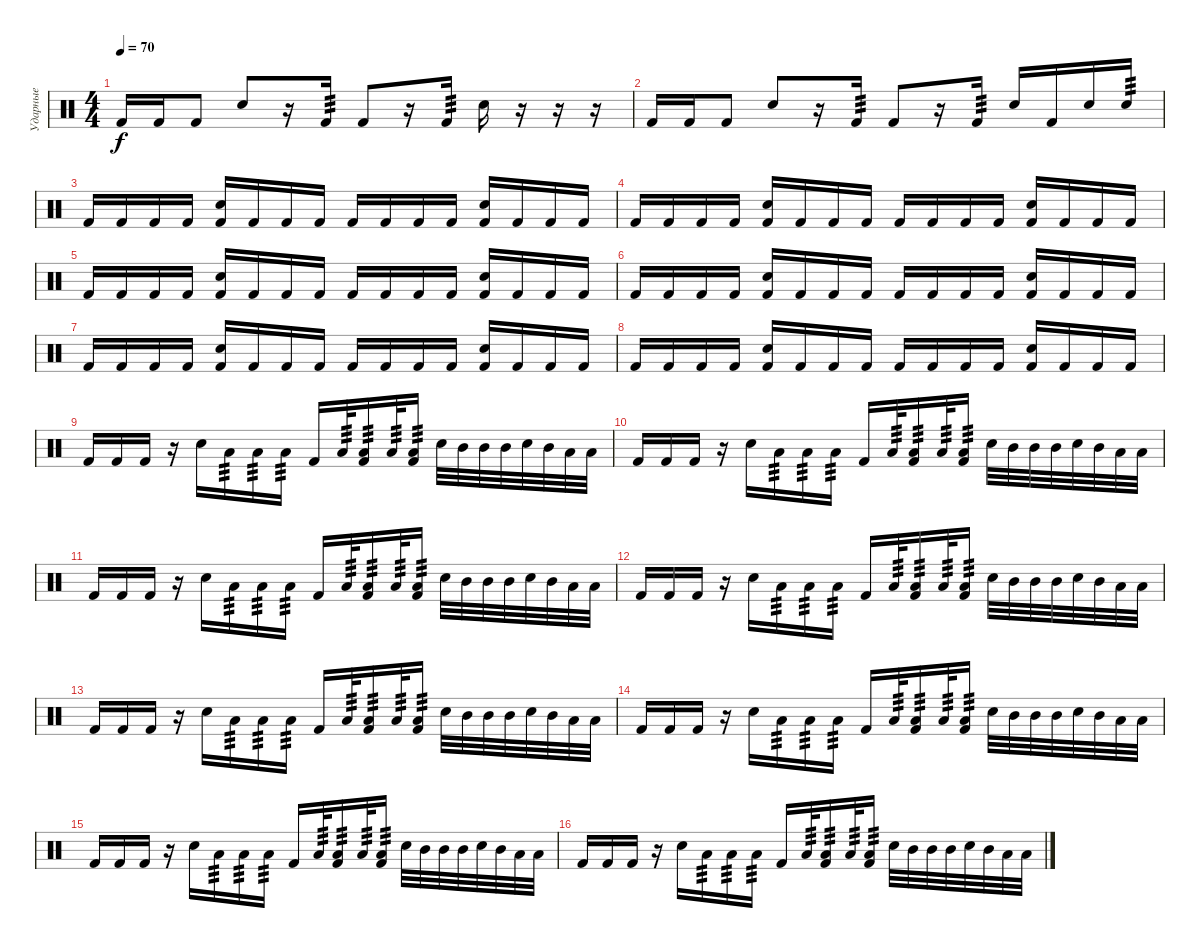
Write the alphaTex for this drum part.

\track ("Ударные" "Ударные") {instrument percussion}
\staff {score}
\articulation defaults
\ts (4 4)
\tempo 70
\clef neutral
\ks c "Kick (hit) 2".16{dy f} "Kick (hit) 2".16 "Kick (hit) 2".8 "Electric Snare (hit)".8
r.16 "Kick (hit) 2".16{tp 3} "Kick (hit) 2".8 r.16 "Kick (hit) 2".16{tp 3} "Electric Snare (hit)".16 r.16 r.16 r.16 |
"Kick (hit) 2".16 "Kick (hit) 2".16 "Kick (hit) 2".8 "Electric Snare (hit)".8 r.16 "Kick (hit) 2".16{tp 3} "Kick (hit) 2".8 r.16 "Kick (hit) 2".16{tp 3} "Electric Snare (hit)".16 "Kick (hit) 2".16 "Electric Snare (hit)".16 "Electric Snare (hit)".16{tp 3} |
"Kick (hit) 2".16 "Kick (hit) 2".16 "Kick (hit) 2".16 "Kick (hit) 2".16 ("Electric Snare (hit)" "Kick (hit) 2").16 "Kick (hit) 2".16 "Kick (hit) 2".16 "Kick (hit) 2".16 "Kick (hit) 2".16 "Kick (hit) 2".16 "Kick (hit) 2".16 "Kick (hit) 2".16 ("Electric Snare (hit)" "Kick (hit) 2").16 "Kick (hit) 2".16 "Kick (hit) 2".16 "Kick (hit) 2".16 |
"Kick (hit) 2".16 "Kick (hit) 2".16 "Kick (hit) 2".16 "Kick (hit) 2".16 ("Electric Snare (hit)" "Kick (hit) 2").16 "Kick (hit) 2".16 "Kick (hit) 2".16 "Kick (hit) 2".16 "Kick (hit) 2".16 "Kick (hit) 2".16 "Kick (hit) 2".16 "Kick (hit) 2".16 ("Electric Snare (hit)" "Kick (hit) 2").16 "Kick (hit) 2".16 "Kick (hit) 2".16 "Kick (hit) 2".16 |
"Kick (hit) 2".16 "Kick (hit) 2".16 "Kick (hit) 2".16 "Kick (hit) 2".16 ("Electric Snare (hit)" "Kick (hit) 2").16 "Kick (hit) 2".16 "Kick (hit) 2".16 "Kick (hit) 2".16 "Kick (hit) 2".16 "Kick (hit) 2".16 "Kick (hit) 2".16 "Kick (hit) 2".16 ("Electric Snare (hit)" "Kick (hit) 2").16 "Kick (hit) 2".16 "Kick (hit) 2".16 "Kick (hit) 2".16 |
"Kick (hit) 2".16 "Kick (hit) 2".16 "Kick (hit) 2".16 "Kick (hit) 2".16 ("Electric Snare (hit)" "Kick (hit) 2").16 "Kick (hit) 2".16 "Kick (hit) 2".16 "Kick (hit) 2".16 "Kick (hit) 2".16 "Kick (hit) 2".16 "Kick (hit) 2".16 "Kick (hit) 2".16 ("Electric Snare (hit)" "Kick (hit) 2").16 "Kick (hit) 2".16 "Kick (hit) 2".16 "Kick (hit) 2".16 |
"Kick (hit) 2".16 "Kick (hit) 2".16 "Kick (hit) 2".16 "Kick (hit) 2".16 ("Electric Snare (hit)" "Kick (hit) 2").16 "Kick (hit) 2".16 "Kick (hit) 2".16 "Kick (hit) 2".16 "Kick (hit) 2".16 "Kick (hit) 2".16 "Kick (hit) 2".16 "Kick (hit) 2".16 ("Electric Snare (hit)" "Kick (hit) 2").16 "Kick (hit) 2".16 "Kick (hit) 2".16 "Kick (hit) 2".16 |
"Kick (hit) 2".16 "Kick (hit) 2".16 "Kick (hit) 2".16 "Kick (hit) 2".16 ("Electric Snare (hit)" "Kick (hit) 2").16 "Kick (hit) 2".16 "Kick (hit) 2".16 "Kick (hit) 2".16 "Kick (hit) 2".16 "Kick (hit) 2".16 "Kick (hit) 2".16 "Kick (hit) 2".16 ("Electric Snare (hit)" "Kick (hit) 2").16 "Kick (hit) 2".16 "Kick (hit) 2".16 "Kick (hit) 2".16 |
"Kick (hit) 2".16 "Kick (hit) 2".16 "Kick (hit) 2".16 r.16 "Electric Snare (hit)".16 "Low Floor Tom (hit)".16{tp 3} "Low Floor Tom (hit)".16{tp 3} "Low Floor Tom (hit)".16{tp 3} "Kick (hit) 2".16 "Low Floor Tom (hit)".32{tp 3} ("Low Floor Tom (hit)" "Kick (hit) 2").16{tp 3} "Low Floor Tom (hit)".32{tp 3} ("Low Floor Tom (hit)" "Kick (hit) 2").16{tp 3} "Electric Snare (hit)".32 "Mid Tom (hit)".32 "Mid Tom (hit)".32 "Mid Tom (hit)".32 "Electric Snare (hit)".32 "Mid Tom (hit)".32 "Low Floor Tom (hit)".32 "Low Floor Tom (hit)".32 |
"Kick (hit) 2".16 "Kick (hit) 2".16 "Kick (hit) 2".16 r.16 "Electric Snare (hit)".16 "Low Floor Tom (hit)".16{tp 3} "Low Floor Tom (hit)".16{tp 3} "Low Floor Tom (hit)".16{tp 3} "Kick (hit) 2".16 "Low Floor Tom (hit)".32{tp 3} ("Low Floor Tom (hit)" "Kick (hit) 2").16{tp 3} "Low Floor Tom (hit)".32{tp 3} ("Low Floor Tom (hit)" "Kick (hit) 2").16{tp 3} "Electric Snare (hit)".32 "Mid Tom (hit)".32 "Mid Tom (hit)".32 "Mid Tom (hit)".32 "Electric Snare (hit)".32 "Mid Tom (hit)".32 "Low Floor Tom (hit)".32 "Low Floor Tom (hit)".32 |
"Kick (hit) 2".16 "Kick (hit) 2".16 "Kick (hit) 2".16 r.16 "Electric Snare (hit)".16 "Low Floor Tom (hit)".16{tp 3} "Low Floor Tom (hit)".16{tp 3} "Low Floor Tom (hit)".16{tp 3} "Kick (hit) 2".16 "Low Floor Tom (hit)".32{tp 3} ("Low Floor Tom (hit)" "Kick (hit) 2").16{tp 3} "Low Floor Tom (hit)".32{tp 3} ("Low Floor Tom (hit)" "Kick (hit) 2").16{tp 3} "Electric Snare (hit)".32 "Mid Tom (hit)".32 "Mid Tom (hit)".32 "Mid Tom (hit)".32 "Electric Snare (hit)".32 "Mid Tom (hit)".32 "Low Floor Tom (hit)".32 "Low Floor Tom (hit)".32 |
"Kick (hit) 2".16 "Kick (hit) 2".16 "Kick (hit) 2".16 r.16 "Electric Snare (hit)".16 "Low Floor Tom (hit)".16{tp 3} "Low Floor Tom (hit)".16{tp 3} "Low Floor Tom (hit)".16{tp 3} "Kick (hit) 2".16 "Low Floor Tom (hit)".32{tp 3} ("Low Floor Tom (hit)" "Kick (hit) 2").16{tp 3} "Low Floor Tom (hit)".32{tp 3} ("Low Floor Tom (hit)" "Kick (hit) 2").16{tp 3} "Electric Snare (hit)".32 "Mid Tom (hit)".32 "Mid Tom (hit)".32 "Mid Tom (hit)".32 "Electric Snare (hit)".32 "Mid Tom (hit)".32 "Low Floor Tom (hit)".32 "Low Floor Tom (hit)".32 |
"Kick (hit) 2".16 "Kick (hit) 2".16 "Kick (hit) 2".16 r.16 "Electric Snare (hit)".16 "Low Floor Tom (hit)".16{tp 3} "Low Floor Tom (hit)".16{tp 3} "Low Floor Tom (hit)".16{tp 3} "Kick (hit) 2".16 "Low Floor Tom (hit)".32{tp 3} ("Low Floor Tom (hit)" "Kick (hit) 2").16{tp 3} "Low Floor Tom (hit)".32{tp 3} ("Low Floor Tom (hit)" "Kick (hit) 2").16{tp 3} "Electric Snare (hit)".32 "Mid Tom (hit)".32 "Mid Tom (hit)".32 "Mid Tom (hit)".32 "Electric Snare (hit)".32 "Mid Tom (hit)".32 "Low Floor Tom (hit)".32 "Low Floor Tom (hit)".32 |
"Kick (hit) 2".16 "Kick (hit) 2".16 "Kick (hit) 2".16 r.16 "Electric Snare (hit)".16 "Low Floor Tom (hit)".16{tp 3} "Low Floor Tom (hit)".16{tp 3} "Low Floor Tom (hit)".16{tp 3} "Kick (hit) 2".16 "Low Floor Tom (hit)".32{tp 3} ("Low Floor Tom (hit)" "Kick (hit) 2").16{tp 3} "Low Floor Tom (hit)".32{tp 3} ("Low Floor Tom (hit)" "Kick (hit) 2").16{tp 3} "Electric Snare (hit)".32 "Mid Tom (hit)".32 "Mid Tom (hit)".32 "Mid Tom (hit)".32 "Electric Snare (hit)".32 "Mid Tom (hit)".32 "Low Floor Tom (hit)".32 "Low Floor Tom (hit)".32 |
"Kick (hit) 2".16 "Kick (hit) 2".16 "Kick (hit) 2".16 r.16 "Electric Snare (hit)".16 "Low Floor Tom (hit)".16{tp 3} "Low Floor Tom (hit)".16{tp 3} "Low Floor Tom (hit)".16{tp 3} "Kick (hit) 2".16 "Low Floor Tom (hit)".32{tp 3} ("Low Floor Tom (hit)" "Kick (hit) 2").16{tp 3} "Low Floor Tom (hit)".32{tp 3} ("Low Floor Tom (hit)" "Kick (hit) 2").16{tp 3} "Electric Snare (hit)".32 "Mid Tom (hit)".32 "Mid Tom (hit)".32 "Mid Tom (hit)".32 "Electric Snare (hit)".32 "Mid Tom (hit)".32 "Low Floor Tom (hit)".32 "Low Floor Tom (hit)".32 |
"Kick (hit) 2".16 "Kick (hit) 2".16 "Kick (hit) 2".16 r.16 "Electric Snare (hit)".16 "Low Floor Tom (hit)".16{tp 3} "Low Floor Tom (hit)".16{tp 3} "Low Floor Tom (hit)".16{tp 3} "Kick (hit) 2".16 "Low Floor Tom (hit)".32{tp 3} ("Low Floor Tom (hit)" "Kick (hit) 2").16{tp 3} "Low Floor Tom (hit)".32{tp 3} ("Low Floor Tom (hit)" "Kick (hit) 2").16{tp 3} "Electric Snare (hit)".32 "Mid Tom (hit)".32 "Mid Tom (hit)".32 "Mid Tom (hit)".32 "Electric Snare (hit)".32 "Mid Tom (hit)".32 "Low Floor Tom (hit)".32 "Low Floor Tom (hit)".32
